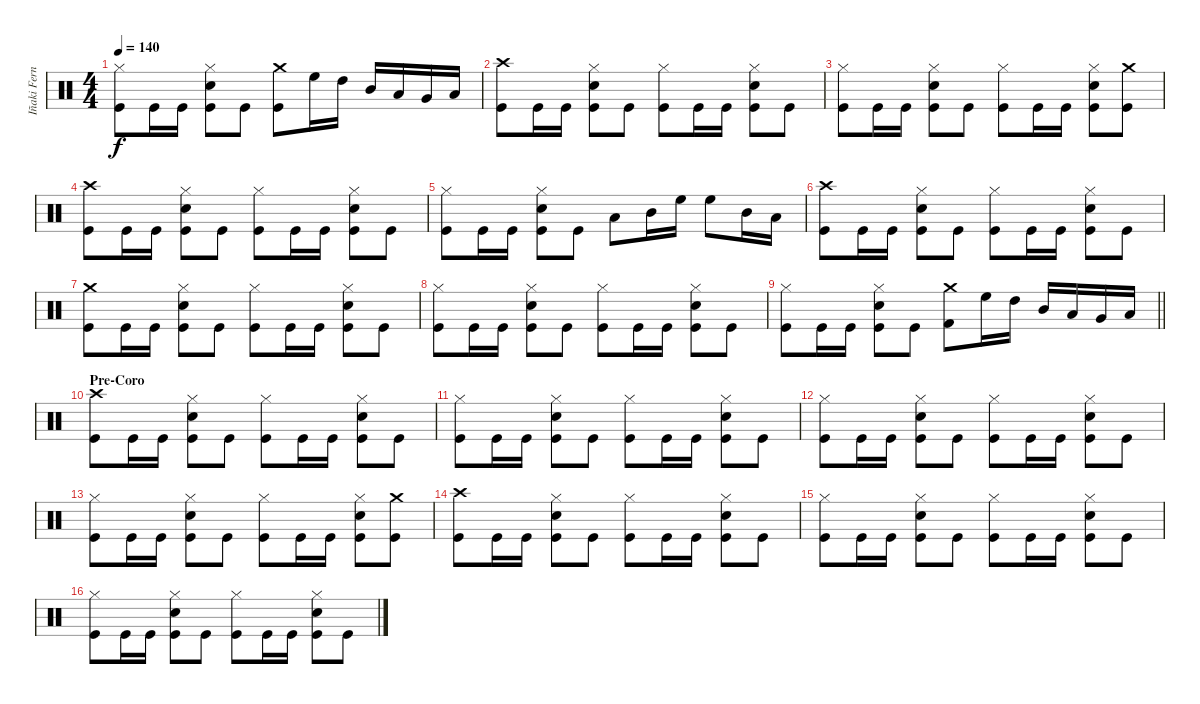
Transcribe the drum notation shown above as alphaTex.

\track ("Iñaki Fernández" "Iñaki Fern") {instrument percussion}
\staff {score}
\articulation defaults
\ts (4 4)
\tempo 140
\clef neutral
\ks c
("Hi-Hat (closed)" "Kick (hit)").8{dy f} "Kick (hit)".16 "Kick (hit)".16 ("Hi-Hat (closed)" "Snare (hit) 2" "Kick (hit)").8 "Kick (hit)".8 ("Crash medium (hit)" "Kick (hit)").8 "High Floor Tom (hit)".16 "High Tom (hit)".16 "Mid Tom (hit)".16 "Low Tom (hit)".16 "Very Low Tom (hit)".16 "Low Floor Tom (hit)".16 |
("Crash high (hit)" "Kick (hit)").8 "Kick (hit)".16 "Kick (hit)".16 ("Hi-Hat (closed)" "Snare (hit) 2" "Kick (hit)").8 "Kick (hit)".8 ("Hi-Hat (closed)" "Kick (hit)").8 "Kick (hit)".16 "Kick (hit)".16 ("Hi-Hat (closed)" "Snare (hit) 2" "Kick (hit)").8 "Kick (hit)".8 |
("Hi-Hat (closed)" "Kick (hit)").8 "Kick (hit)".16 "Kick (hit)".16 ("Hi-Hat (closed)" "Snare (hit) 2" "Kick (hit)").8 "Kick (hit)".8 ("Hi-Hat (closed)" "Kick (hit)").8 "Kick (hit)".16 "Kick (hit)".16 ("Hi-Hat (closed)" "Snare (hit) 2" "Kick (hit)").8 ("Crash medium (hit)" "Kick (hit)").8 |
("Crash high (hit)" "Kick (hit)").8 "Kick (hit)".16 "Kick (hit)".16 ("Hi-Hat (closed)" "Snare (hit) 2" "Kick (hit)").8 "Kick (hit)".8 ("Hi-Hat (closed)" "Kick (hit)").8 "Kick (hit)".16 "Kick (hit)".16 ("Hi-Hat (closed)" "Snare (hit) 2" "Kick (hit)").8 "Kick (hit)".8 |
("Hi-Hat (closed)" "Kick (hit)").8 "Kick (hit)".16 "Kick (hit)".16 ("Hi-Hat (closed)" "Snare (hit) 2" "Kick (hit)").8 "Kick (hit)".8 "Low Tom (hit)".8 "Mid Tom (hit)".16 "High Floor Tom (hit)".16 "High Floor Tom (hit)".8 "Mid Tom (hit)".16 "Low Tom (hit)".16 |
("Crash high (hit)" "Kick (hit)").8 "Kick (hit)".16 "Kick (hit)".16 ("Hi-Hat (closed)" "Snare (hit) 2" "Kick (hit)").8 "Kick (hit)".8 ("Hi-Hat (closed)" "Kick (hit)").8 "Kick (hit)".16 "Kick (hit)".16 ("Hi-Hat (closed)" "Snare (hit) 2" "Kick (hit)").8 "Kick (hit)".8 |
("Crash medium (hit)" "Kick (hit)").8 "Kick (hit)".16 "Kick (hit)".16 ("Hi-Hat (closed)" "Snare (hit) 2" "Kick (hit)").8 "Kick (hit)".8 ("Hi-Hat (closed)" "Kick (hit)").8 "Kick (hit)".16 "Kick (hit)".16 ("Hi-Hat (closed)" "Snare (hit) 2" "Kick (hit)").8 "Kick (hit)".8 |
("Hi-Hat (closed)" "Kick (hit)").8 "Kick (hit)".16 "Kick (hit)".16 ("Hi-Hat (closed)" "Snare (hit) 2" "Kick (hit)").8 "Kick (hit)".8 ("Hi-Hat (closed)" "Kick (hit)").8 "Kick (hit)".16 "Kick (hit)".16 ("Hi-Hat (closed)" "Snare (hit) 2" "Kick (hit)").8 "Kick (hit)".8 |
\barLineRight lightlight
("Hi-Hat (closed)" "Kick (hit)").8 "Kick (hit)".16 "Kick (hit)".16 ("Hi-Hat (closed)" "Snare (hit) 2" "Kick (hit)").8 "Kick (hit)".8 ("Crash medium (hit)" "Kick (hit) 2").8 "High Floor Tom (hit)".16 "High Tom (hit)".16 "Mid Tom (hit)".16 "Low Tom (hit)".16 "Very Low Tom (hit)".16 "Low Floor Tom (hit)".16 |
\section ("" "Pre-Coro")
("Crash high (hit)" "Kick (hit)").8 "Kick (hit)".16 "Kick (hit)".16 ("Hi-Hat (closed)" "Snare (hit) 2" "Kick (hit)").8 "Kick (hit)".8 ("Hi-Hat (closed)" "Kick (hit)").8 "Kick (hit)".16 "Kick (hit)".16 ("Hi-Hat (closed)" "Snare (hit) 2" "Kick (hit)").8 "Kick (hit)".8 |
("Hi-Hat (closed)" "Kick (hit)").8 "Kick (hit)".16 "Kick (hit)".16 ("Hi-Hat (closed)" "Snare (hit) 2" "Kick (hit)").8 "Kick (hit)".8 ("Hi-Hat (closed)" "Kick (hit)").8 "Kick (hit)".16 "Kick (hit)".16 ("Hi-Hat (closed)" "Snare (hit) 2" "Kick (hit)").8 "Kick (hit)".8 |
("Hi-Hat (closed)" "Kick (hit)").8 "Kick (hit)".16 "Kick (hit)".16 ("Hi-Hat (closed)" "Snare (hit) 2" "Kick (hit)").8 "Kick (hit)".8 ("Hi-Hat (closed)" "Kick (hit)").8 "Kick (hit)".16 "Kick (hit)".16 ("Hi-Hat (closed)" "Snare (hit) 2" "Kick (hit)").8 "Kick (hit)".8 |
("Hi-Hat (closed)" "Kick (hit)").8 "Kick (hit)".16 "Kick (hit)".16 ("Hi-Hat (closed)" "Snare (hit) 2" "Kick (hit)").8 "Kick (hit)".8 ("Hi-Hat (closed)" "Kick (hit)").8 "Kick (hit)".16 "Kick (hit)".16 ("Hi-Hat (closed)" "Snare (hit) 2" "Kick (hit)").8 ("Crash medium (hit)" "Kick (hit)").8 |
("Crash high (hit)" "Kick (hit)").8 "Kick (hit)".16 "Kick (hit)".16 ("Hi-Hat (closed)" "Snare (hit) 2" "Kick (hit)").8 "Kick (hit)".8 ("Hi-Hat (closed)" "Kick (hit)").8 "Kick (hit)".16 "Kick (hit)".16 ("Hi-Hat (closed)" "Snare (hit) 2" "Kick (hit)").8 "Kick (hit)".8 |
("Hi-Hat (closed)" "Kick (hit)").8 "Kick (hit)".16 "Kick (hit)".16 ("Hi-Hat (closed)" "Snare (hit) 2" "Kick (hit)").8 "Kick (hit)".8 ("Hi-Hat (closed)" "Kick (hit)").8 "Kick (hit)".16 "Kick (hit)".16 ("Hi-Hat (closed)" "Snare (hit) 2" "Kick (hit)").8 "Kick (hit)".8 |
("Hi-Hat (closed)" "Kick (hit)").8 "Kick (hit)".16 "Kick (hit)".16 ("Hi-Hat (closed)" "Snare (hit) 2" "Kick (hit)").8 "Kick (hit)".8 ("Hi-Hat (closed)" "Kick (hit)").8 "Kick (hit)".16 "Kick (hit)".16 ("Hi-Hat (closed)" "Snare (hit) 2" "Kick (hit)").8 "Kick (hit)".8
